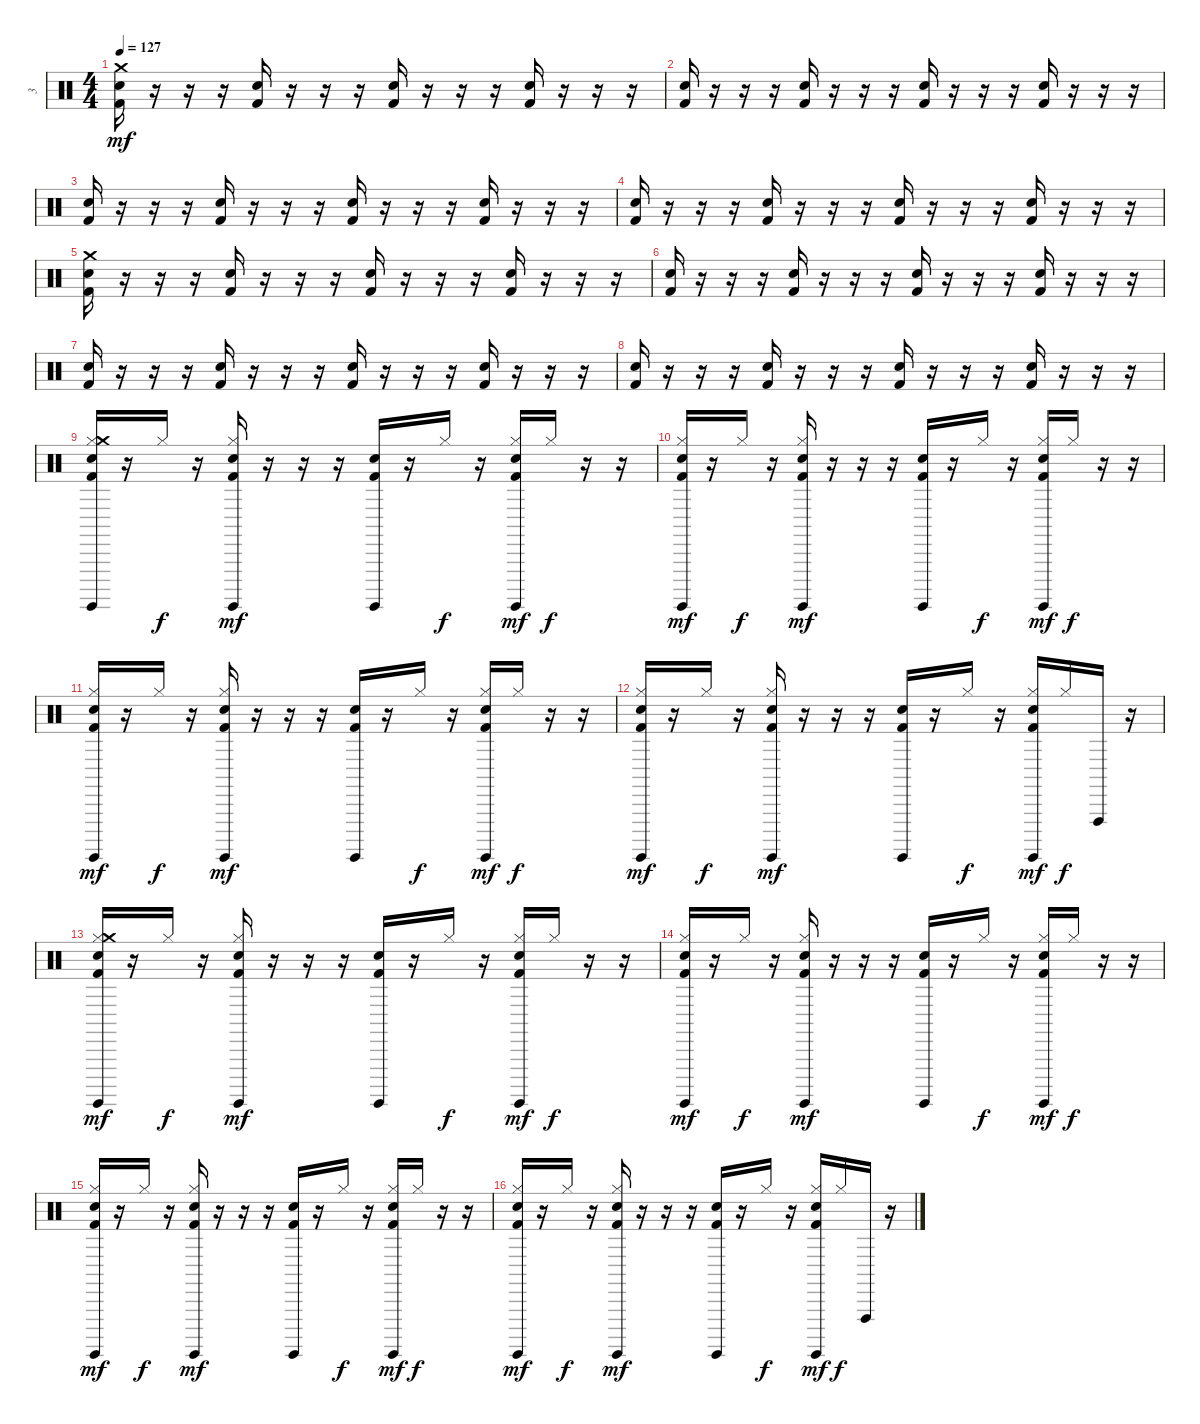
\track ("3" "3") {instrument percussion}
\staff {score}
\articulation defaults
\ts (4 4)
\tempo 127
\clef neutral
\ks c
("Crash medium (hit)" "Kick (hit) 2" "Hand Clap (hit)").16{dy mf} r.16 r.16 r.16 ("Kick (hit) 2" "Hand Clap (hit)").16 r.16 r.16 r.16 ("Kick (hit) 2" "Hand Clap (hit)").16 r.16 r.16 r.16 ("Kick (hit) 2" "Hand Clap (hit)").16 r.16 r.16 r.16 |
("Kick (hit) 2" "Hand Clap (hit)").16 r.16 r.16 r.16 ("Kick (hit) 2" "Hand Clap (hit)").16 r.16 r.16 r.16 ("Kick (hit) 2" "Hand Clap (hit)").16 r.16 r.16 r.16 ("Kick (hit) 2" "Hand Clap (hit)").16 r.16 r.16 r.16 |
("Kick (hit) 2" "Hand Clap (hit)").16 r.16 r.16 r.16 ("Kick (hit) 2" "Hand Clap (hit)").16 r.16 r.16 r.16 ("Kick (hit) 2" "Hand Clap (hit)").16 r.16 r.16 r.16 ("Kick (hit) 2" "Hand Clap (hit)").16 r.16 r.16 r.16 |
("Kick (hit) 2" "Hand Clap (hit)").16 r.16 r.16 r.16 ("Kick (hit) 2" "Hand Clap (hit)").16 r.16 r.16 r.16 ("Kick (hit) 2" "Hand Clap (hit)").16 r.16 r.16 r.16 ("Kick (hit) 2" "Hand Clap (hit)").16 r.16 r.16 r.16 |
("Crash medium (hit)" "Kick (hit) 2" "Hand Clap (hit)").16 r.16 r.16 r.16 ("Kick (hit) 2" "Hand Clap (hit)").16 r.16 r.16 r.16 ("Kick (hit) 2" "Hand Clap (hit)").16 r.16 r.16 r.16 ("Kick (hit) 2" "Hand Clap (hit)").16 r.16 r.16 r.16 |
("Kick (hit) 2" "Hand Clap (hit)").16 r.16 r.16 r.16 ("Kick (hit) 2" "Hand Clap (hit)").16 r.16 r.16 r.16 ("Kick (hit) 2" "Hand Clap (hit)").16 r.16 r.16 r.16 ("Kick (hit) 2" "Hand Clap (hit)").16 r.16 r.16 r.16 |
("Kick (hit) 2" "Hand Clap (hit)").16 r.16 r.16 r.16 ("Kick (hit) 2" "Hand Clap (hit)").16 r.16 r.16 r.16 ("Kick (hit) 2" "Hand Clap (hit)").16 r.16 r.16 r.16 ("Kick (hit) 2" "Hand Clap (hit)").16 r.16 r.16 r.16 |
("Kick (hit) 2" "Hand Clap (hit)").16 r.16 r.16 r.16 ("Kick (hit) 2" "Hand Clap (hit)").16 r.16 r.16 r.16 ("Kick (hit) 2" "Hand Clap (hit)").16 r.16 r.16 r.16 ("Kick (hit) 2" "Hand Clap (hit)").16 r.16 r.16 r.16 |
("Hi-Hat (closed)" "Crash medium (hit)" "Surdo (hit)" "Kick (hit) 2" "Hand Clap (hit)").16{volume 16} r.16 "Hi-Hat (closed)".16{dy f} r.16 ("Hi-Hat (closed)" "Surdo (hit)" "Kick (hit) 2" "Hand Clap (hit)").16{dy mf} r.16 r.16 r.16 ("Surdo (hit)" "Kick (hit) 2" "Hand Clap (hit)").16 r.16 "Hi-Hat (closed)".16{dy f} r.16 ("Hi-Hat (closed)" "Surdo (hit)" "Kick (hit) 2" "Hand Clap (hit)").16{dy mf} "Hi-Hat (closed)".16{dy f} r.16 r.16 |
("Hi-Hat (closed)" "Surdo (hit)" "Kick (hit) 2" "Hand Clap (hit)").16{dy mf} r.16 "Hi-Hat (closed)".16{dy f} r.16 ("Hi-Hat (closed)" "Surdo (hit)" "Kick (hit) 2" "Hand Clap (hit)").16{dy mf} r.16 r.16 r.16 ("Surdo (hit)" "Kick (hit) 2" "Hand Clap (hit)").16 r.16 "Hi-Hat (closed)".16{dy f} r.16 ("Hi-Hat (closed)" "Surdo (hit)" "Kick (hit) 2" "Hand Clap (hit)").16{dy mf} "Hi-Hat (closed)".16{dy f} r.16 r.16 |
("Hi-Hat (closed)" "Surdo (hit)" "Kick (hit) 2" "Hand Clap (hit)").16{dy mf} r.16 "Hi-Hat (closed)".16{dy f} r.16 ("Hi-Hat (closed)" "Surdo (hit)" "Kick (hit) 2" "Hand Clap (hit)").16{dy mf} r.16 r.16 r.16 ("Surdo (hit)" "Kick (hit) 2" "Hand Clap (hit)").16 r.16 "Hi-Hat (closed)".16{dy f} r.16 ("Hi-Hat (closed)" "Surdo (hit)" "Kick (hit) 2" "Hand Clap (hit)").16{dy mf} "Hi-Hat (closed)".16{dy f} r.16 r.16 |
("Hi-Hat (closed)" "Surdo (hit)" "Kick (hit) 2" "Hand Clap (hit)").16{dy mf} r.16 "Hi-Hat (closed)".16{dy f} r.16 ("Hi-Hat (closed)" "Surdo (hit)" "Kick (hit) 2" "Hand Clap (hit)").16{dy mf} r.16 r.16 r.16 ("Surdo (hit)" "Kick (hit) 2" "Hand Clap (hit)").16 r.16 "Hi-Hat (closed)".16{dy f} r.16 ("Hi-Hat (closed)" "Surdo (hit)" "Kick (hit) 2" "Hand Clap (hit)").16{dy mf} "Hi-Hat (closed)".16{dy f} "Vibraslap (hit)".16 r.16 |
("Hi-Hat (closed)" "Crash medium (hit)" "Surdo (hit)" "Kick (hit) 2" "Hand Clap (hit)").16{dy mf} r.16 "Hi-Hat (closed)".16{dy f} r.16 ("Hi-Hat (closed)" "Surdo (hit)" "Kick (hit) 2" "Hand Clap (hit)").16{dy mf} r.16 r.16 r.16 ("Surdo (hit)" "Kick (hit) 2" "Hand Clap (hit)").16 r.16 "Hi-Hat (closed)".16{dy f} r.16 ("Hi-Hat (closed)" "Surdo (hit)" "Kick (hit) 2" "Hand Clap (hit)").16{dy mf} "Hi-Hat (closed)".16{dy f} r.16 r.16 |
("Hi-Hat (closed)" "Surdo (hit)" "Kick (hit) 2" "Hand Clap (hit)").16{dy mf} r.16 "Hi-Hat (closed)".16{dy f} r.16 ("Hi-Hat (closed)" "Surdo (hit)" "Kick (hit) 2" "Hand Clap (hit)").16{dy mf} r.16 r.16 r.16 ("Surdo (hit)" "Kick (hit) 2" "Hand Clap (hit)").16 r.16 "Hi-Hat (closed)".16{dy f} r.16 ("Hi-Hat (closed)" "Surdo (hit)" "Kick (hit) 2" "Hand Clap (hit)").16{dy mf} "Hi-Hat (closed)".16{dy f} r.16 r.16 |
("Hi-Hat (closed)" "Surdo (hit)" "Kick (hit) 2" "Hand Clap (hit)").16{dy mf} r.16 "Hi-Hat (closed)".16{dy f} r.16 ("Hi-Hat (closed)" "Surdo (hit)" "Kick (hit) 2" "Hand Clap (hit)").16{dy mf} r.16 r.16 r.16 ("Surdo (hit)" "Kick (hit) 2" "Hand Clap (hit)").16 r.16 "Hi-Hat (closed)".16{dy f} r.16 ("Hi-Hat (closed)" "Surdo (hit)" "Kick (hit) 2" "Hand Clap (hit)").16{dy mf} "Hi-Hat (closed)".16{dy f} r.16 r.16 |
("Hi-Hat (closed)" "Surdo (hit)" "Kick (hit) 2" "Hand Clap (hit)").16{dy mf} r.16 "Hi-Hat (closed)".16{dy f} r.16 ("Hi-Hat (closed)" "Surdo (hit)" "Kick (hit) 2" "Hand Clap (hit)").16{dy mf} r.16 r.16 r.16 ("Surdo (hit)" "Kick (hit) 2" "Hand Clap (hit)").16 r.16 "Hi-Hat (closed)".16{dy f} r.16 ("Hi-Hat (closed)" "Surdo (hit)" "Kick (hit) 2" "Hand Clap (hit)").16{dy mf} "Hi-Hat (closed)".16{dy f} "Vibraslap (hit)".16 r.16
